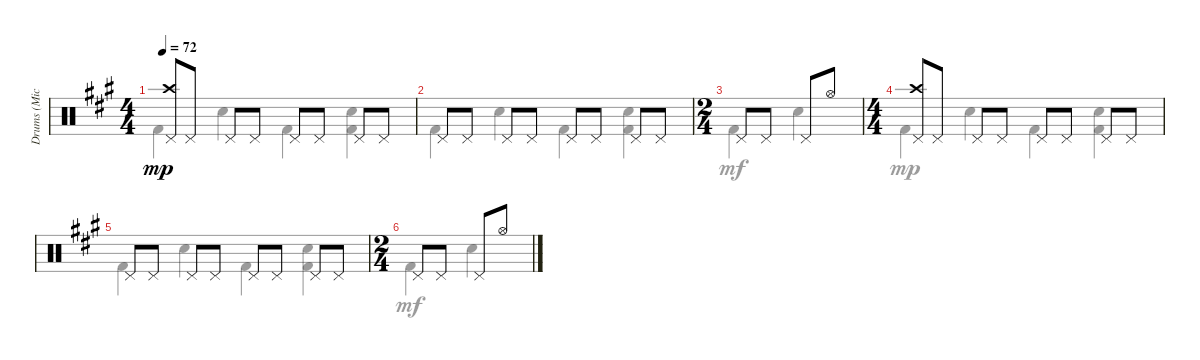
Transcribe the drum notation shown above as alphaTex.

\track ("Drums (Mick Fleetwood)" "Drums (Mic") {instrument percussion}
\staff {score}
\articulation defaults
\voice
\ts (4 4)
\tempo 72
\clef neutral
\ks f#minor
("Crash high (hit)" "Pedal Hi-Hat (hit)").8{dy mp} "Pedal Hi-Hat (hit)".8 "Pedal Hi-Hat (hit)".8 "Pedal Hi-Hat (hit)".8 "Pedal Hi-Hat (hit)".8 "Pedal Hi-Hat (hit)".8 "Pedal Hi-Hat (hit)".8 "Pedal Hi-Hat (hit)".8 |
"Pedal Hi-Hat (hit)".8 "Pedal Hi-Hat (hit)".8 "Pedal Hi-Hat (hit)".8 "Pedal Hi-Hat (hit)".8 "Pedal Hi-Hat (hit)".8 "Pedal Hi-Hat (hit)".8 "Pedal Hi-Hat (hit)".8 "Pedal Hi-Hat (hit)".8 |
\ts (2 4)
"Pedal Hi-Hat (hit)".8 "Pedal Hi-Hat (hit)".8 "Pedal Hi-Hat (hit)".8 "Hi-Hat (open)".8 |
\ts (4 4)
("Crash high (hit)" "Pedal Hi-Hat (hit)").8 "Pedal Hi-Hat (hit)".8 "Pedal Hi-Hat (hit)".8 "Pedal Hi-Hat (hit)".8 "Pedal Hi-Hat (hit)".8 "Pedal Hi-Hat (hit)".8 "Pedal Hi-Hat (hit)".8 "Pedal Hi-Hat (hit)".8 |
"Pedal Hi-Hat (hit)".8 "Pedal Hi-Hat (hit)".8 "Pedal Hi-Hat (hit)".8 "Pedal Hi-Hat (hit)".8 "Pedal Hi-Hat (hit)".8 "Pedal Hi-Hat (hit)".8 "Pedal Hi-Hat (hit)".8 "Pedal Hi-Hat (hit)".8 |
\ts (2 4)
"Pedal Hi-Hat (hit)".8 "Pedal Hi-Hat (hit)".8 "Pedal Hi-Hat (hit)".8 "Hi-Hat (open)".8
\voice
\clef neutral
\ottava regular
\simile none
\ks f#minor "Kick (hit) 2".4{dy mp} "Snare (hit) 2".4 "Kick (hit) 2".4
("Snare (hit) 2" "Kick (hit) 2").4 |
"Kick (hit) 2".4 "Snare (hit) 2".4 "Kick (hit) 2".4 ("Snare (hit) 2" "Kick (hit) 2").4 |
"Kick (hit) 2".4{dy mf} "Snare (hit) 2".4 |
"Kick (hit) 2".4{dy mp} "Snare (hit) 2".4 "Kick (hit) 2".4 ("Snare (hit) 2" "Kick (hit) 2").4 |
"Kick (hit) 2".4 "Snare (hit) 2".4 "Kick (hit) 2".4 ("Snare (hit) 2" "Kick (hit) 2").4 |
"Kick (hit) 2".4{dy mf} "Snare (hit) 2".4
